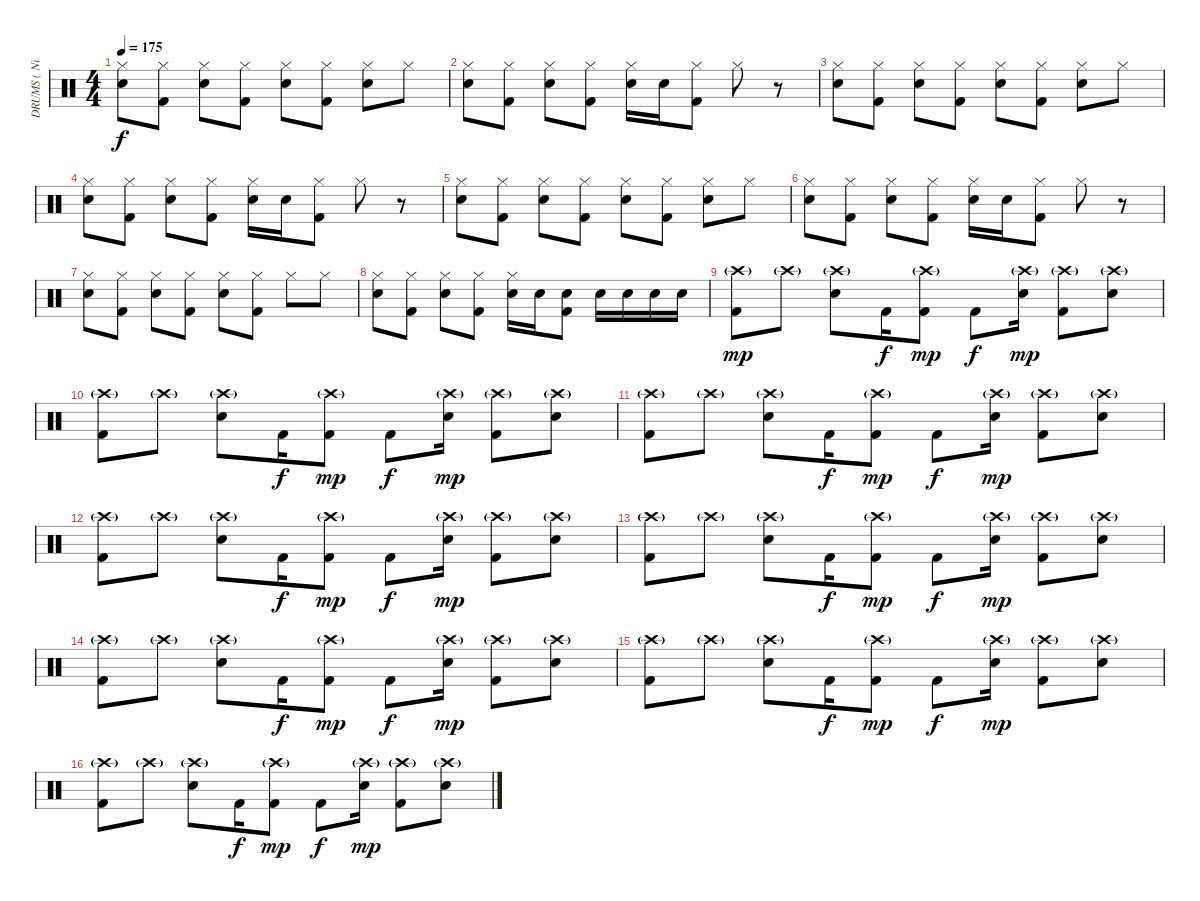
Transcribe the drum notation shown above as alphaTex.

\track ("DRUMS ( Nick Oshiro )" "DRUMS ( Ni") {instrument percussion}
\staff {score}
\articulation defaults
\ts (4 4)
\tempo 175
\clef neutral
\ks c
("Electric Snare (hit)" "Hi-Hat (closed)").8{dy f} ("Kick (hit) 2" "Hi-Hat (closed)").8 ("Electric Snare (hit)" "Hi-Hat (closed)").8 ("Kick (hit) 2" "Hi-Hat (closed)").8 ("Electric Snare (hit)" "Hi-Hat (closed)").8 ("Kick (hit) 2" "Hi-Hat (closed)").8 ("Electric Snare (hit)" "Hi-Hat (closed)").8 "Hi-Hat (closed)".8 |
("Electric Snare (hit)" "Hi-Hat (closed)").8 ("Kick (hit) 2" "Hi-Hat (closed)").8 ("Electric Snare (hit)" "Hi-Hat (closed)").8 ("Kick (hit) 2" "Hi-Hat (closed)").8 ("Electric Snare (hit)" "Hi-Hat (closed)").16 "Electric Snare (hit)".16 ("Kick (hit) 2" "Hi-Hat (closed)").8 "Hi-Hat (closed)".8 r.8 |
("Electric Snare (hit)" "Hi-Hat (closed)").8 ("Kick (hit) 2" "Hi-Hat (closed)").8 ("Electric Snare (hit)" "Hi-Hat (closed)").8 ("Kick (hit) 2" "Hi-Hat (closed)").8 ("Electric Snare (hit)" "Hi-Hat (closed)").8 ("Kick (hit) 2" "Hi-Hat (closed)").8 ("Electric Snare (hit)" "Hi-Hat (closed)").8 "Hi-Hat (closed)".8 |
("Electric Snare (hit)" "Hi-Hat (closed)").8 ("Kick (hit) 2" "Hi-Hat (closed)").8 ("Electric Snare (hit)" "Hi-Hat (closed)").8 ("Kick (hit) 2" "Hi-Hat (closed)").8 ("Electric Snare (hit)" "Hi-Hat (closed)").16 "Electric Snare (hit)".16 ("Kick (hit) 2" "Hi-Hat (closed)").8 "Hi-Hat (closed)".8 r.8 |
("Electric Snare (hit)" "Hi-Hat (closed)").8 ("Kick (hit) 2" "Hi-Hat (closed)").8 ("Electric Snare (hit)" "Hi-Hat (closed)").8 ("Kick (hit) 2" "Hi-Hat (closed)").8 ("Electric Snare (hit)" "Hi-Hat (closed)").8 ("Kick (hit) 2" "Hi-Hat (closed)").8 ("Electric Snare (hit)" "Hi-Hat (closed)").8 "Hi-Hat (closed)".8 |
("Electric Snare (hit)" "Hi-Hat (closed)").8 ("Kick (hit) 2" "Hi-Hat (closed)").8 ("Electric Snare (hit)" "Hi-Hat (closed)").8 ("Kick (hit) 2" "Hi-Hat (closed)").8 ("Electric Snare (hit)" "Hi-Hat (closed)").16 "Electric Snare (hit)".16 ("Kick (hit) 2" "Hi-Hat (closed)").8 "Hi-Hat (closed)".8 r.8 |
("Electric Snare (hit)" "Hi-Hat (closed)").8 ("Kick (hit) 2" "Hi-Hat (closed)").8 ("Electric Snare (hit)" "Hi-Hat (closed)").8 ("Kick (hit) 2" "Hi-Hat (closed)").8 ("Electric Snare (hit)" "Hi-Hat (closed)").8 ("Kick (hit) 2" "Hi-Hat (closed)").8 "Hi-Hat (closed)".8 "Hi-Hat (closed)".8 |
("Electric Snare (hit)" "Hi-Hat (closed)").8 ("Kick (hit) 2" "Hi-Hat (closed)").8 ("Electric Snare (hit)" "Hi-Hat (closed)").8 ("Kick (hit) 2" "Hi-Hat (closed)").8 ("Electric Snare (hit)" "Hi-Hat (closed)").16 "Electric Snare (hit)".16 ("Kick (hit) 2" "Electric Snare (hit)").8 "Electric Snare (hit)".16 "Electric Snare (hit)".16 "Electric Snare (hit)".16 "Electric Snare (hit)".16 |
("Kick (hit) 2" "Crash high (hit)"{g}).8{dy mp} "Crash high (hit)"{g}.8 ("Electric Snare (hit)" "Crash high (hit)"{g}).8 "Kick (hit) 2".16{dy f} ("Kick (hit) 2" "Crash high (hit)"{g}).8{dy mp} "Kick (hit) 2".8{dy f} ("Electric Snare (hit)" "Crash high (hit)"{g}).16{dy mp} ("Kick (hit) 2" "Crash high (hit)"{g}).8 ("Electric Snare (hit)" "Crash high (hit)"{g}).8 |
("Kick (hit) 2" "Crash high (hit)"{g}).8 "Crash high (hit)"{g}.8 ("Electric Snare (hit)" "Crash high (hit)"{g}).8 "Kick (hit) 2".16{dy f} ("Kick (hit) 2" "Crash high (hit)"{g}).8{dy mp} "Kick (hit) 2".8{dy f} ("Electric Snare (hit)" "Crash high (hit)"{g}).16{dy mp} ("Kick (hit) 2" "Crash high (hit)"{g}).8 ("Electric Snare (hit)" "Crash high (hit)"{g}).8 |
("Kick (hit) 2" "Crash high (hit)"{g}).8 "Crash high (hit)"{g}.8 ("Electric Snare (hit)" "Crash high (hit)"{g}).8 "Kick (hit) 2".16{dy f} ("Kick (hit) 2" "Crash high (hit)"{g}).8{dy mp} "Kick (hit) 2".8{dy f} ("Electric Snare (hit)" "Crash high (hit)"{g}).16{dy mp} ("Kick (hit) 2" "Crash high (hit)"{g}).8 ("Electric Snare (hit)" "Crash high (hit)"{g}).8 |
("Kick (hit) 2" "Crash high (hit)"{g}).8 "Crash high (hit)"{g}.8 ("Electric Snare (hit)" "Crash high (hit)"{g}).8 "Kick (hit) 2".16{dy f} ("Kick (hit) 2" "Crash high (hit)"{g}).8{dy mp} "Kick (hit) 2".8{dy f} ("Electric Snare (hit)" "Crash high (hit)"{g}).16{dy mp} ("Kick (hit) 2" "Crash high (hit)"{g}).8 ("Electric Snare (hit)" "Crash high (hit)"{g}).8 |
("Kick (hit) 2" "Crash high (hit)"{g}).8 "Crash high (hit)"{g}.8 ("Electric Snare (hit)" "Crash high (hit)"{g}).8 "Kick (hit) 2".16{dy f} ("Kick (hit) 2" "Crash high (hit)"{g}).8{dy mp} "Kick (hit) 2".8{dy f} ("Electric Snare (hit)" "Crash high (hit)"{g}).16{dy mp} ("Kick (hit) 2" "Crash high (hit)"{g}).8 ("Electric Snare (hit)" "Crash high (hit)"{g}).8 |
("Kick (hit) 2" "Crash high (hit)"{g}).8 "Crash high (hit)"{g}.8 ("Electric Snare (hit)" "Crash high (hit)"{g}).8 "Kick (hit) 2".16{dy f} ("Kick (hit) 2" "Crash high (hit)"{g}).8{dy mp} "Kick (hit) 2".8{dy f} ("Electric Snare (hit)" "Crash high (hit)"{g}).16{dy mp} ("Kick (hit) 2" "Crash high (hit)"{g}).8 ("Electric Snare (hit)" "Crash high (hit)"{g}).8 |
("Kick (hit) 2" "Crash high (hit)"{g}).8 "Crash high (hit)"{g}.8 ("Electric Snare (hit)" "Crash high (hit)"{g}).8 "Kick (hit) 2".16{dy f} ("Kick (hit) 2" "Crash high (hit)"{g}).8{dy mp} "Kick (hit) 2".8{dy f} ("Electric Snare (hit)" "Crash high (hit)"{g}).16{dy mp} ("Kick (hit) 2" "Crash high (hit)"{g}).8 ("Electric Snare (hit)" "Crash high (hit)"{g}).8 |
("Kick (hit) 2" "Crash high (hit)"{g}).8 "Crash high (hit)"{g}.8 ("Electric Snare (hit)" "Crash high (hit)"{g}).8 "Kick (hit) 2".16{dy f} ("Kick (hit) 2" "Crash high (hit)"{g}).8{dy mp} "Kick (hit) 2".8{dy f} ("Electric Snare (hit)" "Crash high (hit)"{g}).16{dy mp} ("Kick (hit) 2" "Crash high (hit)"{g}).8 ("Electric Snare (hit)" "Crash high (hit)"{g}).8
